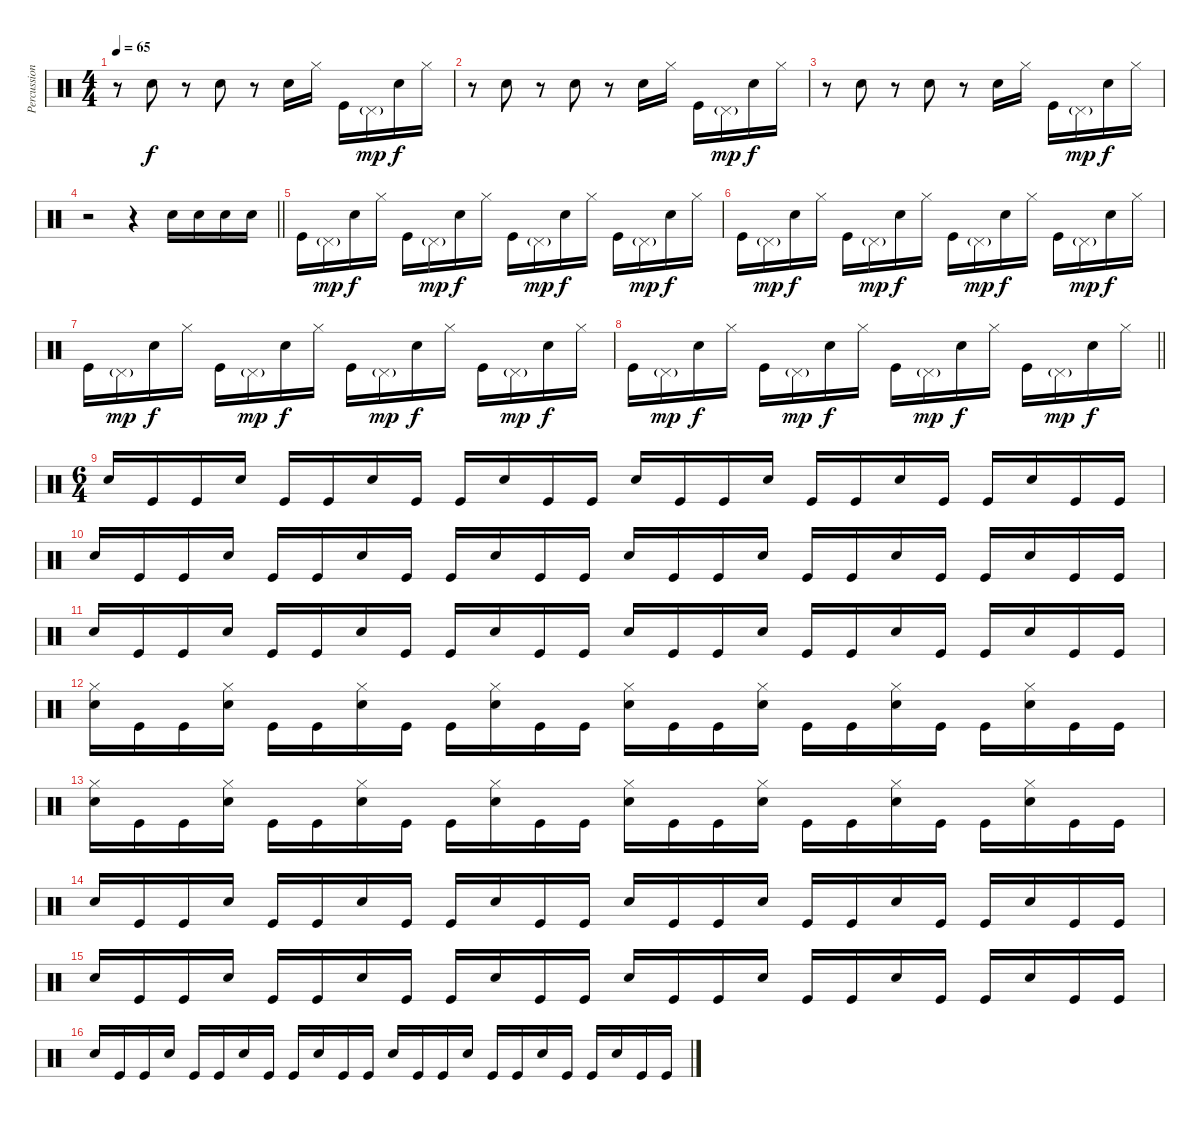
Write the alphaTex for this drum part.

\track ("Percussion" "Percussion") {instrument percussion}
\staff {score}
\articulation defaults
\ts (4 4)
\tempo 65
\clef neutral
\ks c
r.8{dy f} "Snare (hit) 2".8 r.8 "Snare (hit) 2".8 r.8 "Snare (hit) 2".16 "Hi-Hat (closed)".16 "Kick (hit)".16 "Pedal Hi-Hat (hit)"{g}.16{dy mp} "Snare (hit) 2".16{dy f} "Hi-Hat (closed)".16 |
r.8 "Snare (hit) 2".8 r.8 "Snare (hit) 2".8 r.8 "Snare (hit) 2".16 "Hi-Hat (closed)".16 "Kick (hit)".16 "Pedal Hi-Hat (hit)"{g}.16{dy mp} "Snare (hit) 2".16{dy f} "Hi-Hat (closed)".16 |
r.8 "Snare (hit) 2".8 r.8 "Snare (hit) 2".8 r.8 "Snare (hit) 2".16 "Hi-Hat (closed)".16 "Kick (hit)".16 "Pedal Hi-Hat (hit)"{g}.16{dy mp} "Snare (hit) 2".16{dy f} "Hi-Hat (closed)".16 |
\barLineRight lightlight
r.2 r.4 "Snare (hit) 2".16 "Snare (hit) 2".16 "Snare (hit) 2".16 "Snare (hit) 2".16 |
"Kick (hit)".16 "Pedal Hi-Hat (hit)"{g}.16{dy mp} "Snare (hit) 2".16{dy f} "Hi-Hat (closed)".16 "Kick (hit)".16 "Pedal Hi-Hat (hit)"{g}.16{dy mp} "Snare (hit) 2".16{dy f} "Hi-Hat (closed)".16 "Kick (hit)".16 "Pedal Hi-Hat (hit)"{g}.16{dy mp} "Snare (hit) 2".16{dy f} "Hi-Hat (closed)".16 "Kick (hit)".16 "Pedal Hi-Hat (hit)"{g}.16{dy mp} "Snare (hit) 2".16{dy f} "Hi-Hat (closed)".16 |
"Kick (hit)".16 "Pedal Hi-Hat (hit)"{g}.16{dy mp} "Snare (hit) 2".16{dy f} "Hi-Hat (closed)".16 "Kick (hit)".16 "Pedal Hi-Hat (hit)"{g}.16{dy mp} "Snare (hit) 2".16{dy f} "Hi-Hat (closed)".16 "Kick (hit)".16 "Pedal Hi-Hat (hit)"{g}.16{dy mp} "Snare (hit) 2".16{dy f} "Hi-Hat (closed)".16 "Kick (hit)".16 "Pedal Hi-Hat (hit)"{g}.16{dy mp} "Snare (hit) 2".16{dy f} "Hi-Hat (closed)".16 |
"Kick (hit)".16 "Pedal Hi-Hat (hit)"{g}.16{dy mp} "Snare (hit) 2".16{dy f} "Hi-Hat (closed)".16 "Kick (hit)".16 "Pedal Hi-Hat (hit)"{g}.16{dy mp} "Snare (hit) 2".16{dy f} "Hi-Hat (closed)".16 "Kick (hit)".16 "Pedal Hi-Hat (hit)"{g}.16{dy mp} "Snare (hit) 2".16{dy f} "Hi-Hat (closed)".16 "Kick (hit)".16 "Pedal Hi-Hat (hit)"{g}.16{dy mp} "Snare (hit) 2".16{dy f} "Hi-Hat (closed)".16 |
\barLineRight lightlight "Kick (hit)".16 "Pedal Hi-Hat (hit)"{g}.16{dy mp} "Snare (hit) 2".16{dy f} "Hi-Hat (closed)".16 "Kick (hit)".16 "Pedal Hi-Hat (hit)"{g}.16{dy mp} "Snare (hit) 2".16{dy f} "Hi-Hat (closed)".16 "Kick (hit)".16 "Pedal Hi-Hat (hit)"{g}.16{dy mp} "Snare (hit) 2".16{dy f} "Hi-Hat (closed)".16 "Kick (hit)".16 "Pedal Hi-Hat (hit)"{g}.16{dy mp} "Snare (hit) 2".16{dy f} "Hi-Hat (closed)".16
|
\ts (6 4)
"Snare (hit) 2".16 "Kick (hit)".16 "Kick (hit)".16 "Snare (hit) 2".16 "Kick (hit)".16 "Kick (hit)".16 "Snare (hit) 2".16 "Kick (hit)".16 "Kick (hit)".16 "Snare (hit) 2".16 "Kick (hit)".16 "Kick (hit)".16 "Snare (hit) 2".16 "Kick (hit)".16 "Kick (hit)".16 "Snare (hit) 2".16 "Kick (hit)".16 "Kick (hit)".16 "Snare (hit) 2".16 "Kick (hit)".16 "Kick (hit)".16 "Snare (hit) 2".16 "Kick (hit)".16 "Kick (hit)".16 |
"Snare (hit) 2".16 "Kick (hit)".16 "Kick (hit)".16 "Snare (hit) 2".16 "Kick (hit)".16 "Kick (hit)".16 "Snare (hit) 2".16 "Kick (hit)".16 "Kick (hit)".16 "Snare (hit) 2".16 "Kick (hit)".16 "Kick (hit)".16 "Snare (hit) 2".16 "Kick (hit)".16 "Kick (hit)".16 "Snare (hit) 2".16 "Kick (hit)".16 "Kick (hit)".16 "Snare (hit) 2".16 "Kick (hit)".16 "Kick (hit)".16 "Snare (hit) 2".16 "Kick (hit)".16 "Kick (hit)".16 |
"Snare (hit) 2".16 "Kick (hit)".16 "Kick (hit)".16 "Snare (hit) 2".16 "Kick (hit)".16 "Kick (hit)".16 "Snare (hit) 2".16 "Kick (hit)".16 "Kick (hit)".16 "Snare (hit) 2".16 "Kick (hit)".16 "Kick (hit)".16 "Snare (hit) 2".16 "Kick (hit)".16 "Kick (hit)".16 "Snare (hit) 2".16 "Kick (hit)".16 "Kick (hit)".16 "Snare (hit) 2".16 "Kick (hit)".16 "Kick (hit)".16 "Snare (hit) 2".16 "Kick (hit)".16 "Kick (hit)".16 |
("Hi-Hat (closed)" "Snare (hit) 2").16 "Kick (hit)".16 "Kick (hit)".16 ("Hi-Hat (closed)" "Snare (hit) 2").16 "Kick (hit)".16 "Kick (hit)".16 ("Hi-Hat (closed)" "Snare (hit) 2").16 "Kick (hit)".16 "Kick (hit)".16 ("Hi-Hat (closed)" "Snare (hit) 2").16 "Kick (hit)".16 "Kick (hit)".16 ("Hi-Hat (closed)" "Snare (hit) 2").16 "Kick (hit)".16 "Kick (hit)".16 ("Hi-Hat (closed)" "Snare (hit) 2").16 "Kick (hit)".16 "Kick (hit)".16 ("Hi-Hat (closed)" "Snare (hit) 2").16 "Kick (hit)".16 "Kick (hit)".16 ("Hi-Hat (closed)" "Snare (hit) 2").16 "Kick (hit)".16 "Kick (hit)".16 |
("Hi-Hat (closed)" "Snare (hit) 2").16 "Kick (hit)".16 "Kick (hit)".16 ("Hi-Hat (closed)" "Snare (hit) 2").16 "Kick (hit)".16 "Kick (hit)".16 ("Hi-Hat (closed)" "Snare (hit) 2").16 "Kick (hit)".16 "Kick (hit)".16 ("Hi-Hat (closed)" "Snare (hit) 2").16 "Kick (hit)".16 "Kick (hit)".16 ("Hi-Hat (closed)" "Snare (hit) 2").16 "Kick (hit)".16 "Kick (hit)".16 ("Hi-Hat (closed)" "Snare (hit) 2").16 "Kick (hit)".16 "Kick (hit)".16 ("Hi-Hat (closed)" "Snare (hit) 2").16 "Kick (hit)".16 "Kick (hit)".16 ("Hi-Hat (closed)" "Snare (hit) 2").16 "Kick (hit)".16 "Kick (hit)".16 |
"Snare (hit) 2".16 "Kick (hit)".16 "Kick (hit)".16 "Snare (hit) 2".16 "Kick (hit)".16 "Kick (hit)".16 "Snare (hit) 2".16 "Kick (hit)".16 "Kick (hit)".16 "Snare (hit) 2".16 "Kick (hit)".16 "Kick (hit)".16 "Snare (hit) 2".16 "Kick (hit)".16 "Kick (hit)".16 "Snare (hit) 2".16 "Kick (hit)".16 "Kick (hit)".16 "Snare (hit) 2".16 "Kick (hit)".16 "Kick (hit)".16 "Snare (hit) 2".16 "Kick (hit)".16 "Kick (hit)".16 |
"Snare (hit) 2".16 "Kick (hit)".16 "Kick (hit)".16 "Snare (hit) 2".16 "Kick (hit)".16 "Kick (hit)".16 "Snare (hit) 2".16 "Kick (hit)".16 "Kick (hit)".16 "Snare (hit) 2".16 "Kick (hit)".16 "Kick (hit)".16 "Snare (hit) 2".16 "Kick (hit)".16 "Kick (hit)".16 "Snare (hit) 2".16 "Kick (hit)".16 "Kick (hit)".16 "Snare (hit) 2".16 "Kick (hit)".16 "Kick (hit)".16 "Snare (hit) 2".16 "Kick (hit)".16 "Kick (hit)".16 |
"Snare (hit) 2".16 "Kick (hit)".16 "Kick (hit)".16 "Snare (hit) 2".16 "Kick (hit)".16 "Kick (hit)".16 "Snare (hit) 2".16 "Kick (hit)".16 "Kick (hit)".16 "Snare (hit) 2".16 "Kick (hit)".16 "Kick (hit)".16 "Snare (hit) 2".16 "Kick (hit)".16 "Kick (hit)".16 "Snare (hit) 2".16 "Kick (hit)".16 "Kick (hit)".16 "Snare (hit) 2".16 "Kick (hit)".16 "Kick (hit)".16 "Snare (hit) 2".16 "Kick (hit)".16 "Kick (hit)".16
